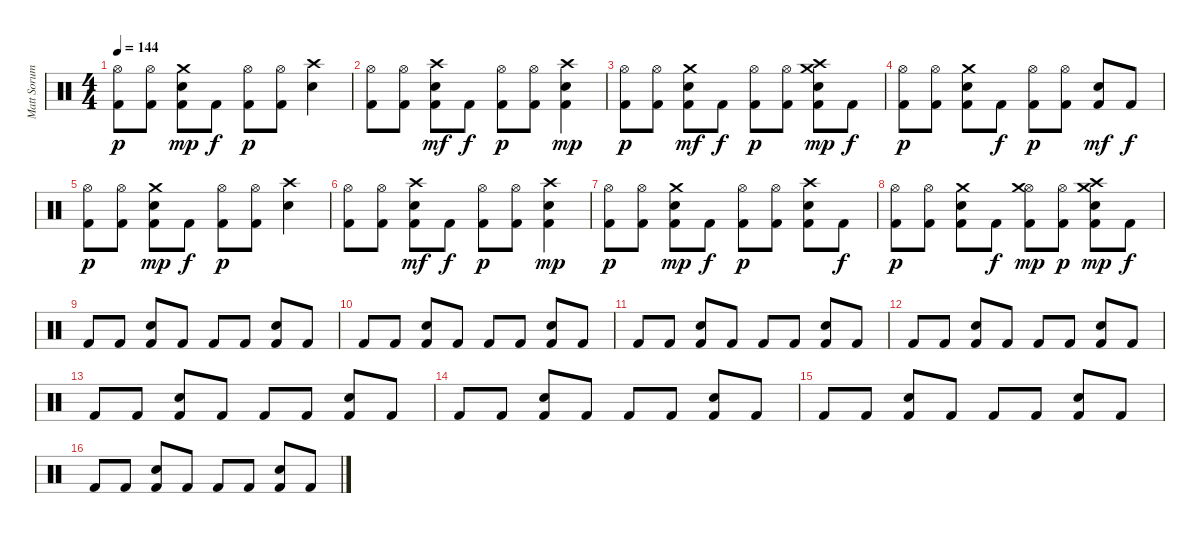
\track ("Matt Sorum" "Matt Sorum") {instrument percussion}
\staff {score}
\articulation defaults
\ts (4 4)
\tempo 144
\clef neutral
\ks c
("Kick (hit) 2" "Hi-Hat (open)").8{dy p} ("Kick (hit) 2" "Hi-Hat (open)").8 ("Kick (hit) 2" "Snare (hit) 2" "Crash medium (hit)").8{dy mp} "Kick (hit) 2".8{dy f} ("Kick (hit) 2" "Hi-Hat (open)").8{dy p} ("Kick (hit) 2" "Hi-Hat (open)").8 ("Snare (hit) 2" "Crash high (hit)").4 |
("Kick (hit) 2" "Hi-Hat (open)").8 ("Kick (hit) 2" "Hi-Hat (open)").8 ("Kick (hit) 2" "Snare (hit) 2" "Crash high (hit)").8{dy mf} "Kick (hit) 2".8{dy f} ("Kick (hit) 2" "Hi-Hat (open)").8{dy p} ("Kick (hit) 2" "Hi-Hat (open)").8 ("Kick (hit) 2" "Snare (hit) 2" "Crash high (hit)").4{dy mp} |
("Kick (hit) 2" "Hi-Hat (open)").8{dy p} ("Kick (hit) 2" "Hi-Hat (open)").8 ("Kick (hit) 2" "Snare (hit) 2" "Crash medium (hit)").8{dy mf} "Kick (hit) 2".8{dy f} ("Kick (hit) 2" "Hi-Hat (open)").8{dy p} ("Kick (hit) 2" "Hi-Hat (open)").8 ("Kick (hit) 2" "Snare (hit) 2" "Crash high (hit)" "Crash medium (hit)").8{dy mp} "Kick (hit) 2".8{dy f} |
("Kick (hit) 2" "Hi-Hat (open)").8{dy p} ("Kick (hit) 2" "Hi-Hat (open)").8 ("Kick (hit) 2" "Snare (hit) 2" "Crash medium (hit)").8 "Kick (hit) 2".8{dy f} ("Kick (hit) 2" "Hi-Hat (open)").8{dy p} ("Kick (hit) 2" "Hi-Hat (open)").8 ("Kick (hit) 2" "Snare (hit) 2").8{dy mf} "Kick (hit) 2".8{dy f} |
("Kick (hit) 2" "Hi-Hat (open)").8{dy p} ("Kick (hit) 2" "Hi-Hat (open)").8 ("Kick (hit) 2" "Snare (hit) 2" "Crash medium (hit)").8{dy mp} "Kick (hit) 2".8{dy f} ("Kick (hit) 2" "Hi-Hat (open)").8{dy p} ("Kick (hit) 2" "Hi-Hat (open)").8 ("Snare (hit) 2" "Crash high (hit)").4 |
("Kick (hit) 2" "Hi-Hat (open)").8 ("Kick (hit) 2" "Hi-Hat (open)").8 ("Kick (hit) 2" "Snare (hit) 2" "Crash high (hit)").8{dy mf} "Kick (hit) 2".8{dy f} ("Kick (hit) 2" "Hi-Hat (open)").8{dy p} ("Kick (hit) 2" "Hi-Hat (open)").8 ("Kick (hit) 2" "Snare (hit) 2" "Crash high (hit)").4{dy mp} |
("Kick (hit) 2" "Hi-Hat (open)").8{dy p} ("Kick (hit) 2" "Hi-Hat (open)").8 ("Kick (hit) 2" "Snare (hit) 2" "Crash medium (hit)").8{dy mp} "Kick (hit) 2".8{dy f} ("Kick (hit) 2" "Hi-Hat (open)").8{dy p} ("Kick (hit) 2" "Hi-Hat (open)").8 ("Kick (hit) 2" "Snare (hit) 2" "Crash high (hit)").8 "Kick (hit) 2".8{dy f} |
("Kick (hit) 2" "Hi-Hat (open)").8{dy p} ("Kick (hit) 2" "Hi-Hat (open)").8 ("Kick (hit) 2" "Snare (hit) 2" "Crash medium (hit)").8 "Kick (hit) 2".8{dy f} ("Kick (hit) 2" "Hi-Hat (open)" "Crash medium (hit)").8{dy mp} ("Kick (hit) 2" "Hi-Hat (open)").8{dy p} ("Kick (hit) 2" "Snare (hit) 2" "Crash medium (hit)" "Crash high (hit)").8{dy mp} "Kick (hit) 2".8{dy f} |
"Kick (hit) 2".8 "Kick (hit) 2".8 ("Kick (hit) 2" "Snare (hit) 2").8 "Kick (hit) 2".8 "Kick (hit) 2".8 "Kick (hit) 2".8 ("Kick (hit) 2" "Snare (hit) 2").8 "Kick (hit) 2".8 |
"Kick (hit) 2".8 "Kick (hit) 2".8 ("Kick (hit) 2" "Snare (hit) 2").8 "Kick (hit) 2".8 "Kick (hit) 2".8 "Kick (hit) 2".8 ("Kick (hit) 2" "Snare (hit) 2").8 "Kick (hit) 2".8 |
"Kick (hit) 2".8 "Kick (hit) 2".8 ("Kick (hit) 2" "Snare (hit) 2").8 "Kick (hit) 2".8 "Kick (hit) 2".8 "Kick (hit) 2".8 ("Kick (hit) 2" "Snare (hit) 2").8 "Kick (hit) 2".8 |
"Kick (hit) 2".8 "Kick (hit) 2".8 ("Kick (hit) 2" "Snare (hit) 2").8 "Kick (hit) 2".8 "Kick (hit) 2".8 "Kick (hit) 2".8 ("Kick (hit) 2" "Snare (hit) 2").8 "Kick (hit) 2".8 |
"Kick (hit) 2".8 "Kick (hit) 2".8 ("Kick (hit) 2" "Snare (hit) 2").8 "Kick (hit) 2".8 "Kick (hit) 2".8 "Kick (hit) 2".8 ("Kick (hit) 2" "Snare (hit) 2").8 "Kick (hit) 2".8 |
"Kick (hit) 2".8 "Kick (hit) 2".8 ("Kick (hit) 2" "Snare (hit) 2").8 "Kick (hit) 2".8 "Kick (hit) 2".8 "Kick (hit) 2".8 ("Kick (hit) 2" "Snare (hit) 2").8 "Kick (hit) 2".8 |
"Kick (hit) 2".8 "Kick (hit) 2".8 ("Kick (hit) 2" "Snare (hit) 2").8 "Kick (hit) 2".8 "Kick (hit) 2".8 "Kick (hit) 2".8 ("Kick (hit) 2" "Snare (hit) 2").8 "Kick (hit) 2".8 |
"Kick (hit) 2".8 "Kick (hit) 2".8 ("Kick (hit) 2" "Snare (hit) 2").8 "Kick (hit) 2".8 "Kick (hit) 2".8 "Kick (hit) 2".8 ("Kick (hit) 2" "Snare (hit) 2").8 "Kick (hit) 2".8
